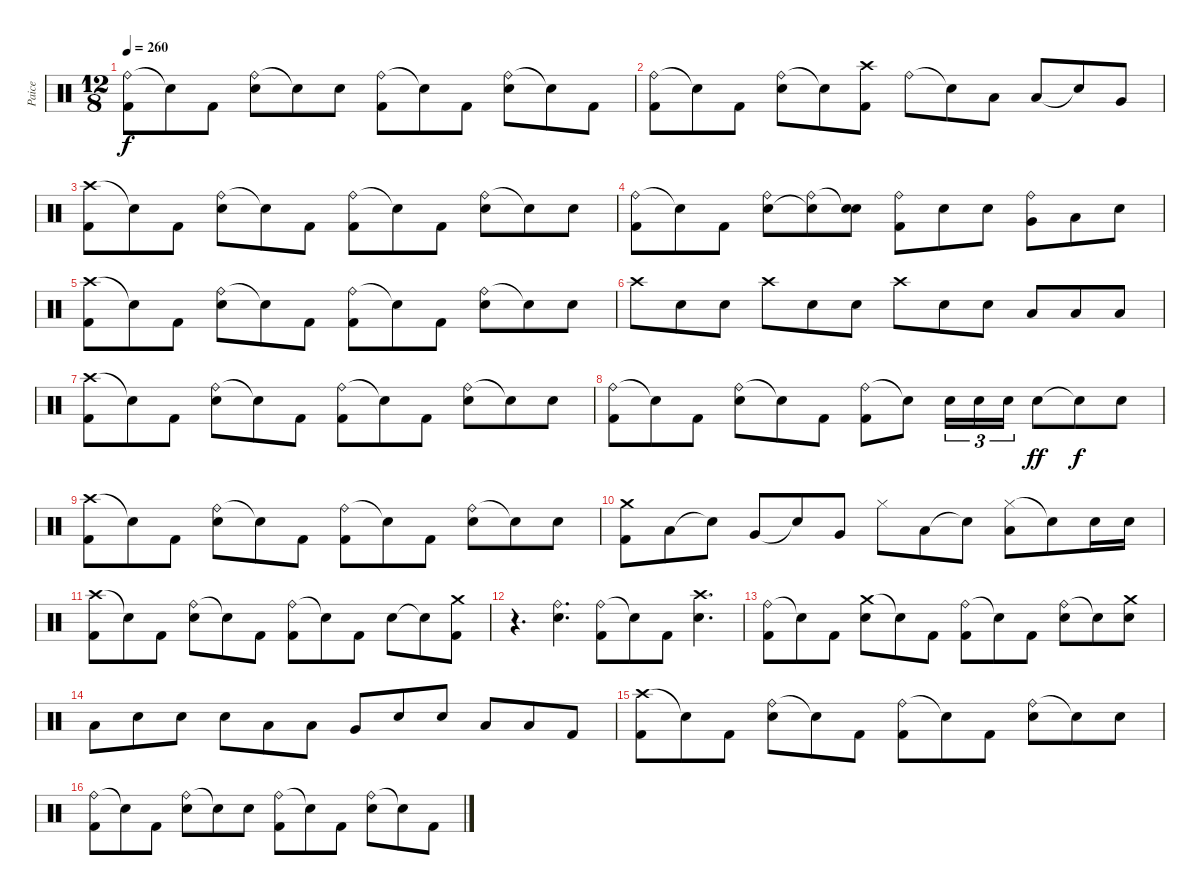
\track ("Paice" "Paice") {instrument percussion}
\staff {score}
\articulation defaults
\ts (12 8)
\tempo 260
\clef neutral
\ks c
("Ride (bell)" "Kick (hit) 2").8{dy f} "Snare (hit)"{t}.8 "Kick (hit) 2".8 ("Ride (bell)" "Electric Snare (hit)").8 "Snare (hit)"{t}.8 "Electric Snare (hit)".8 ("Ride (bell)" "Kick (hit) 2").8 "Snare (hit)"{t}.8 "Kick (hit) 2".8 ("Ride (bell)" "Electric Snare (hit)").8 "Snare (hit)"{t}.8 "Kick (hit) 2".8 |
("Ride (bell)" "Kick (hit) 2").8 "Snare (hit)"{t}.8 "Kick (hit) 2".8 ("Ride (bell)" "Electric Snare (hit)").8 "Snare (hit)"{t}.8 ("Crash high (hit)" "Kick (hit) 2").8 "Ride (bell)".8 "Snare (hit)"{t}.8 "Low Tom (hit)".8 "Low Tom (hit)".8 "Snare (hit)"{t}.8 "Very Low Tom (hit)".8 |
("Crash high (hit)" "Kick (hit) 2").8 "Snare (hit)"{t}.8 "Kick (hit) 2".8 ("Ride (bell)" "Electric Snare (hit)").8 "Snare (hit)"{t}.8 "Kick (hit) 2".8 ("Ride (bell)" "Kick (hit) 2").8 "Snare (hit)"{t}.8 "Kick (hit) 2".8 ("Ride (bell)" "Electric Snare (hit)").8 "Snare (hit)"{t}.8 "Electric Snare (hit)".8 |
("Ride (bell)" "Kick (hit) 2").8 "Snare (hit)"{t}.8 "Kick (hit) 2".8 ("Ride (bell)" "Electric Snare (hit)").8 ("Ride (bell)" "Snare (hit)"{t}).8 ("Snare (hit)"{t} "Electric Snare (hit)").8 ("Ride (bell)" "Kick (hit) 2").8 "Electric Snare (hit)".8 "Electric Snare (hit)".8 ("Ride (bell)" "Very Low Tom (hit)").8 "Low Tom (hit)".8 "Electric Snare (hit)".8 |
("Crash high (hit)" "Kick (hit) 2").8 "Snare (hit)"{t}.8 "Kick (hit) 2".8 ("Ride (bell)" "Electric Snare (hit)").8 "Snare (hit)"{t}.8 "Kick (hit) 2".8 ("Ride (bell)" "Kick (hit) 2").8 "Snare (hit)"{t}.8 "Kick (hit) 2".8 ("Ride (bell)" "Electric Snare (hit)").8 "Snare (hit)"{t}.8 "Electric Snare (hit)".8 |
"Crash high (hit)".8 "Electric Snare (hit)".8 "Electric Snare (hit)".8 "Crash high (hit)".8 "Electric Snare (hit)".8 "Electric Snare (hit)".8 "Crash high (hit)".8 "Electric Snare (hit)".8 "Electric Snare (hit)".8 "Low Tom (hit)".8 "Low Tom (hit)".8 "Low Tom (hit)".8 |
("Crash high (hit)" "Kick (hit) 2").8 "Snare (hit)"{t}.8 "Kick (hit) 2".8 ("Ride (bell)" "Electric Snare (hit)").8 "Snare (hit)"{t}.8 "Kick (hit) 2".8 ("Ride (bell)" "Kick (hit) 2").8 "Snare (hit)"{t}.8 "Kick (hit) 2".8 ("Ride (bell)" "Electric Snare (hit)").8 "Snare (hit)"{t}.8 "Electric Snare (hit)".8 |
("Ride (bell)" "Kick (hit) 2").8 "Snare (hit)"{t}.8 "Kick (hit) 2".8 ("Ride (bell)" "Electric Snare (hit)").8 "Snare (hit)"{t}.8 "Kick (hit) 2".8 ("Ride (bell)" "Kick (hit) 2").8 "Snare (hit)"{t}.8 "Electric Snare (hit)".16{tu (3 2)} "Electric Snare (hit)".16{tu (3 2)} "Electric Snare (hit)".16{tu (3 2)} "Electric Snare (hit)".8{dy ff} "Snare (hit)"{t}.8{dy f} "Electric Snare (hit)".8 |
("Crash high (hit)" "Kick (hit) 2").8 "Snare (hit)"{t}.8 "Kick (hit) 2".8 ("Ride (bell)" "Electric Snare (hit)").8 "Snare (hit)"{t}.8 "Kick (hit) 2".8 ("Ride (bell)" "Kick (hit) 2").8 "Snare (hit)"{t}.8 "Kick (hit) 2".8 ("Ride (bell)" "Electric Snare (hit)").8 "Snare (hit)"{t}.8 "Electric Snare (hit)".8 |
("Crash medium (hit)" "Kick (hit) 2").8 "Low Tom (hit)".8 "Snare (hit)"{t}.8 "Very Low Tom (hit)".8 "Snare (hit)"{t}.8 "Very Low Tom (hit)".8 "Hi-Hat (closed)".8 "Low Floor Tom (hit)".8 "Snare (hit)"{t}.8 ("Hi-Hat (closed)" "Low Floor Tom (hit)").8 "Snare (hit)"{t}.8 "Electric Snare (hit)".16 "Electric Snare (hit)".16 |
("Crash high (hit)" "Kick (hit) 2").8 "Snare (hit)"{t}.8 "Kick (hit) 2".8 ("Ride (bell)" "Electric Snare (hit)").8 "Snare (hit)"{t}.8 "Kick (hit) 2".8 ("Ride (bell)" "Kick (hit) 2").8 "Snare (hit)"{t}.8 "Kick (hit) 2".8 "Electric Snare (hit)".8 "Snare (hit)"{t}.8 ("Crash medium (hit)" "Kick (hit) 2").8 |
r.4{d} ("Ride (bell)" "Electric Snare (hit)").4{d} ("Ride (bell)" "Kick (hit) 2").8 "Snare (hit)"{t}.8 "Kick (hit) 2".8 ("Crash high (hit)" "Electric Snare (hit)").4{d} |
("Ride (bell)" "Kick (hit) 2").8 "Snare (hit)"{t}.8 "Kick (hit) 2".8 ("Crash medium (hit)" "Electric Snare (hit)").8 "Snare (hit)"{t}.8 "Kick (hit) 2".8 ("Ride (bell)" "Kick (hit) 2").8 "Snare (hit)"{t}.8 "Kick (hit) 2".8 ("Ride (bell)" "Electric Snare (hit)").8 "Snare (hit)"{t}.8 ("Crash medium (hit)" "Electric Snare (hit)").8 |
"Low Tom (hit)".8 "Electric Snare (hit)".8 "Electric Snare (hit)".8 "Electric Snare (hit)".8 "Low Tom (hit)".8 "Low Tom (hit)".8 "Very Low Tom (hit)".8 "Electric Snare (hit)".8 "Electric Snare (hit)".8 "Low Floor Tom (hit)".8 "Low Floor Tom (hit)".8 "Kick (hit) 2".8 |
("Crash high (hit)" "Kick (hit) 2").8 "Snare (hit)"{t}.8 "Kick (hit) 2".8 ("Ride (bell)" "Electric Snare (hit)").8 "Snare (hit)"{t}.8 "Kick (hit) 2".8 ("Ride (bell)" "Kick (hit) 2").8 "Snare (hit)"{t}.8 "Kick (hit) 2".8 ("Ride (bell)" "Electric Snare (hit)").8 "Snare (hit)"{t}.8 "Electric Snare (hit)".8 |
("Ride (bell)" "Kick (hit) 2").8 "Snare (hit)"{t}.8 "Kick (hit) 2".8 ("Ride (bell)" "Electric Snare (hit)").8 "Snare (hit)"{t}.8 "Electric Snare (hit)".8 ("Ride (bell)" "Kick (hit) 2").8 "Snare (hit)"{t}.8 "Kick (hit) 2".8 ("Ride (bell)" "Electric Snare (hit)").8 "Snare (hit)"{t}.8 "Kick (hit) 2".8
